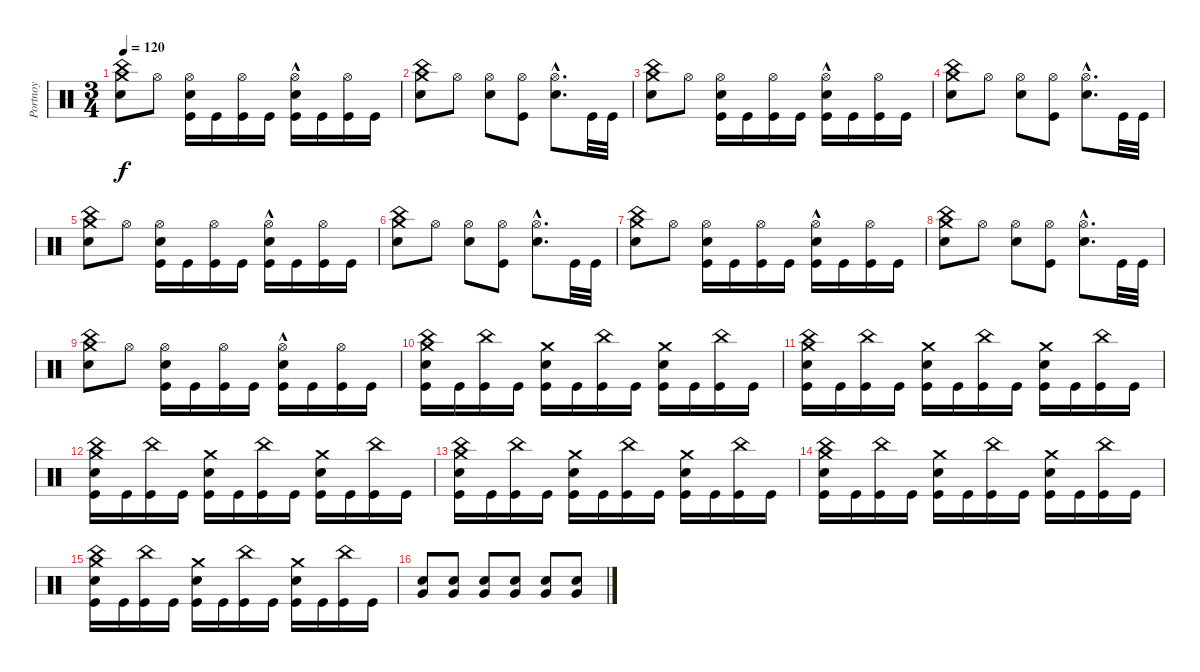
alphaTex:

\track ("Portnoy" "Portnoy") {instrument percussion}
\staff {score}
\articulation defaults
\ts (3 4)
\tempo 120
\clef neutral
\ks c
("Crash medium (hit)" "Snare (hit) 2" "China (hit)").8{dy f} "Hi-Hat (open)".8 ("Hi-Hat (open)" "Snare (hit) 2" "Kick (hit)").16 "Kick (hit)".16 ("Hi-Hat (open)" "Kick (hit)").16 "Kick (hit)".16 ("Hi-Hat (open)"{hac} "Snare (hit) 2" "Kick (hit)").16 "Kick (hit)".16 ("Hi-Hat (open)" "Kick (hit)").16 "Kick (hit)".16 |
("Crash medium (hit)" "Snare (hit) 2" "China (hit)").8 "Hi-Hat (open)".8 ("Hi-Hat (open)" "Snare (hit) 2").8 ("Hi-Hat (open)" "Kick (hit)").8 ("Hi-Hat (open)"{hac} "Snare (hit) 2"{hac}).8{d} "Kick (hit)".32 "Kick (hit)".32 |
("Crash medium (hit)" "Snare (hit) 2" "China (hit)").8 "Hi-Hat (open)".8 ("Hi-Hat (open)" "Snare (hit) 2" "Kick (hit)").16 "Kick (hit)".16 ("Hi-Hat (open)" "Kick (hit)").16 "Kick (hit)".16 ("Hi-Hat (open)"{hac} "Snare (hit) 2" "Kick (hit)").16 "Kick (hit)".16 ("Hi-Hat (open)" "Kick (hit)").16 "Kick (hit)".16 |
("Crash medium (hit)" "Snare (hit) 2" "China (hit)").8 "Hi-Hat (open)".8 ("Hi-Hat (open)" "Snare (hit) 2").8 ("Hi-Hat (open)" "Kick (hit)").8 ("Hi-Hat (open)"{hac} "Snare (hit) 2"{hac}).8{d} "Kick (hit)".32 "Kick (hit)".32 |
("Crash medium (hit)" "Snare (hit) 2" "China (hit)").8 "Hi-Hat (open)".8 ("Hi-Hat (open)" "Snare (hit) 2" "Kick (hit)").16 "Kick (hit)".16 ("Hi-Hat (open)" "Kick (hit)").16 "Kick (hit)".16 ("Hi-Hat (open)"{hac} "Snare (hit) 2" "Kick (hit)").16 "Kick (hit)".16 ("Hi-Hat (open)" "Kick (hit)").16 "Kick (hit)".16 |
("Crash medium (hit)" "Snare (hit) 2" "China (hit)").8 "Hi-Hat (open)".8 ("Hi-Hat (open)" "Snare (hit) 2").8 ("Hi-Hat (open)" "Kick (hit)").8 ("Hi-Hat (open)"{hac} "Snare (hit) 2"{hac}).8{d} "Kick (hit)".32 "Kick (hit)".32 |
("Crash medium (hit)" "Snare (hit) 2" "China (hit)").8 "Hi-Hat (open)".8 ("Hi-Hat (open)" "Snare (hit) 2" "Kick (hit)").16 "Kick (hit)".16 ("Hi-Hat (open)" "Kick (hit)").16 "Kick (hit)".16 ("Hi-Hat (open)"{hac} "Snare (hit) 2" "Kick (hit)").16 "Kick (hit)".16 ("Hi-Hat (open)" "Kick (hit)").16 "Kick (hit)".16 |
("Crash medium (hit)" "Snare (hit) 2" "China (hit)").8 "Hi-Hat (open)".8 ("Hi-Hat (open)" "Snare (hit) 2").8 ("Hi-Hat (open)" "Kick (hit)").8 ("Hi-Hat (open)"{hac} "Snare (hit) 2"{hac}).8{d} "Kick (hit)".32 "Kick (hit)".32 |
("Crash medium (hit)" "Snare (hit) 2" "China (hit)").8 "Hi-Hat (open)".8 ("Hi-Hat (open)" "Snare (hit) 2" "Kick (hit)").16 "Kick (hit)".16 ("Hi-Hat (open)" "Kick (hit)").16 "Kick (hit)".16 ("Hi-Hat (open)"{hac} "Snare (hit) 2" "Kick (hit)").16 "Kick (hit)".16 ("Hi-Hat (open)" "Kick (hit)").16 "Kick (hit)".16 |
("Crash medium (hit)" "Snare (hit) 2" "China (hit)" "Kick (hit)").16 "Kick (hit)".16 ("China (hit)" "Kick (hit)").16 "Kick (hit)".16 ("Crash medium (hit)" "Snare (hit) 2" "Kick (hit)").16 "Kick (hit)".16 ("China (hit)" "Kick (hit)").16 "Kick (hit)".16 ("Crash medium (hit)" "Snare (hit) 2" "Kick (hit)").16 "Kick (hit)".16 ("China (hit)" "Kick (hit)").16 "Kick (hit)".16 |
("Crash medium (hit)" "Snare (hit) 2" "China (hit)" "Kick (hit)").16 "Kick (hit)".16 ("China (hit)" "Kick (hit)").16 "Kick (hit)".16 ("Crash medium (hit)" "Snare (hit) 2" "Kick (hit)").16 "Kick (hit)".16 ("China (hit)" "Kick (hit)").16 "Kick (hit)".16 ("Crash medium (hit)" "Snare (hit) 2" "Kick (hit)").16 "Kick (hit)".16 ("China (hit)" "Kick (hit)").16 "Kick (hit)".16 |
("Crash medium (hit)" "Snare (hit) 2" "China (hit)" "Kick (hit)").16 "Kick (hit)".16 ("China (hit)" "Kick (hit)").16 "Kick (hit)".16 ("Crash medium (hit)" "Snare (hit) 2" "Kick (hit)").16 "Kick (hit)".16 ("China (hit)" "Kick (hit)").16 "Kick (hit)".16 ("Crash medium (hit)" "Snare (hit) 2" "Kick (hit)").16 "Kick (hit)".16 ("China (hit)" "Kick (hit)").16 "Kick (hit)".16 |
("Crash medium (hit)" "Snare (hit) 2" "China (hit)" "Kick (hit)").16 "Kick (hit)".16 ("China (hit)" "Kick (hit)").16 "Kick (hit)".16 ("Crash medium (hit)" "Snare (hit) 2" "Kick (hit)").16 "Kick (hit)".16 ("China (hit)" "Kick (hit)").16 "Kick (hit)".16 ("Crash medium (hit)" "Snare (hit) 2" "Kick (hit)").16 "Kick (hit)".16 ("China (hit)" "Kick (hit)").16 "Kick (hit)".16 |
("Crash medium (hit)" "Snare (hit) 2" "China (hit)" "Kick (hit)").16 "Kick (hit)".16 ("China (hit)" "Kick (hit)").16 "Kick (hit)".16 ("Crash medium (hit)" "Snare (hit) 2" "Kick (hit)").16 "Kick (hit)".16 ("China (hit)" "Kick (hit)").16 "Kick (hit)".16 ("Crash medium (hit)" "Snare (hit) 2" "Kick (hit)").16 "Kick (hit)".16 ("China (hit)" "Kick (hit)").16 "Kick (hit)".16 |
("Crash medium (hit)" "Snare (hit) 2" "China (hit)" "Kick (hit)").16 "Kick (hit)".16 ("China (hit)" "Kick (hit)").16 "Kick (hit)".16 ("Crash medium (hit)" "Snare (hit) 2" "Kick (hit)").16 "Kick (hit)".16 ("China (hit)" "Kick (hit)").16 "Kick (hit)".16 ("Crash medium (hit)" "Snare (hit) 2" "Kick (hit)").16 "Kick (hit)".16 ("China (hit)" "Kick (hit)").16 "Kick (hit)".16 |
("Snare (hit) 2" "Very Low Tom (hit)").8 ("Snare (hit) 2" "Very Low Tom (hit)").8 ("Snare (hit) 2" "Very Low Tom (hit)").8 ("Snare (hit) 2" "Very Low Tom (hit)").8 ("Snare (hit) 2" "Very Low Tom (hit)").8 ("Snare (hit) 2" "Very Low Tom (hit)").8
